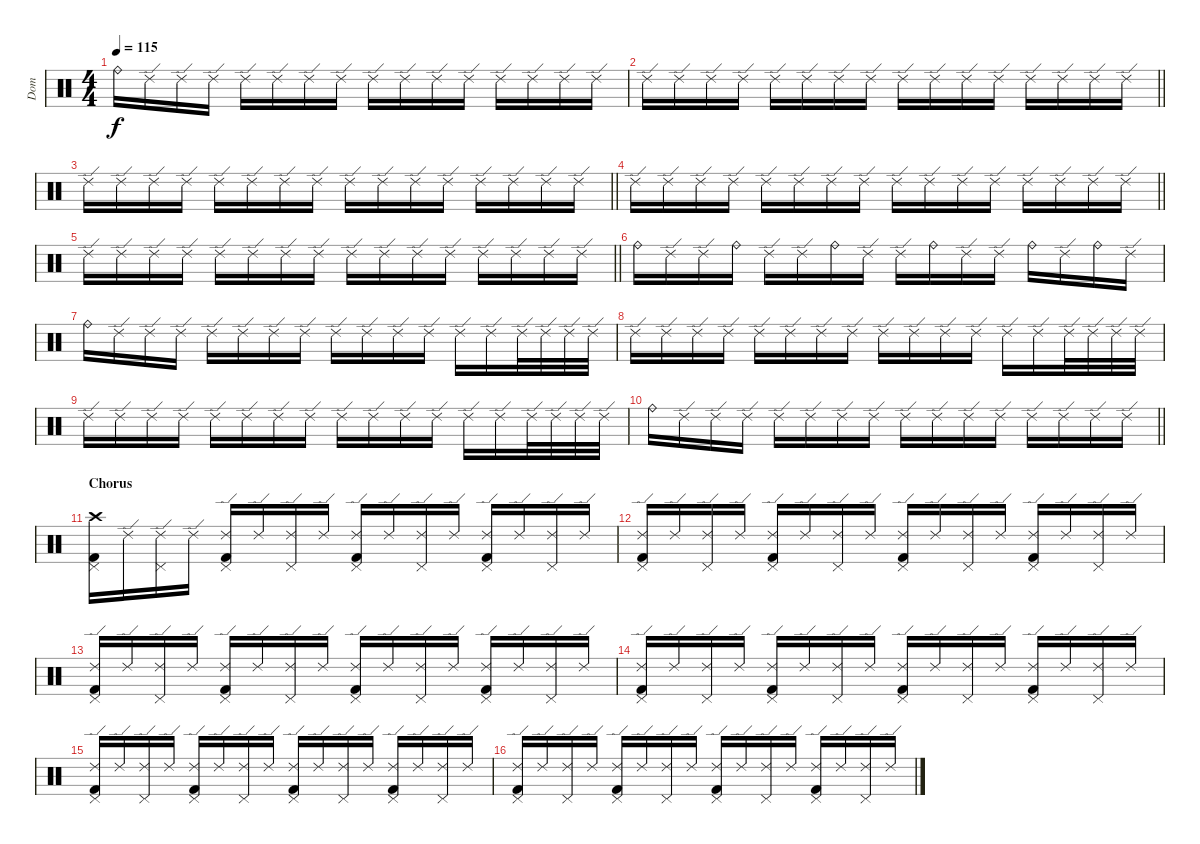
\track ("Dom" "Dom") {instrument percussion}
\staff {score}
\articulation defaults
\ts (4 4)
\tempo 115
\clef neutral
\ks c "Ride (bell)".16{dy f} "Ride (edge) 2".16 "Ride (edge) 2".16 "Ride (edge) 2".16 "Ride (edge) 2".16 "Ride (edge) 2".16 "Ride (edge) 2".16 "Ride (edge) 2".16 "Ride (edge) 2".16 "Ride (edge) 2".16 "Ride (edge) 2".16 "Ride (edge) 2".16 "Ride (edge) 2".16 "Ride (edge) 2".16 "Ride (edge) 2".16 "Ride (edge) 2".16
|
\barLineRight lightlight "Ride (edge) 2".16 "Ride (edge) 2".16 "Ride (edge) 2".16 "Ride (edge) 2".16 "Ride (edge) 2".16 "Ride (edge) 2".16 "Ride (edge) 2".16 "Ride (edge) 2".16 "Ride (edge) 2".16 "Ride (edge) 2".16 "Ride (edge) 2".16 "Ride (edge) 2".16 "Ride (edge) 2".16 "Ride (edge) 2".16 "Ride (edge) 2".16 "Ride (edge) 2".16
|
\barLineRight lightlight "Ride (edge) 2".16 "Ride (edge) 2".16 "Ride (edge) 2".16 "Ride (edge) 2".16 "Ride (edge) 2".16 "Ride (edge) 2".16 "Ride (edge) 2".16 "Ride (edge) 2".16 "Ride (edge) 2".16 "Ride (edge) 2".16 "Ride (edge) 2".16 "Ride (edge) 2".16 "Ride (edge) 2".16 "Ride (edge) 2".16 "Ride (edge) 2".16 "Ride (edge) 2".16
|
\barLineRight lightlight "Ride (edge) 2".16 "Ride (edge) 2".16 "Ride (edge) 2".16 "Ride (edge) 2".16 "Ride (edge) 2".16 "Ride (edge) 2".16 "Ride (edge) 2".16 "Ride (edge) 2".16 "Ride (edge) 2".16 "Ride (edge) 2".16 "Ride (edge) 2".16 "Ride (edge) 2".16 "Ride (edge) 2".16 "Ride (edge) 2".16 "Ride (edge) 2".16 "Ride (edge) 2".16
|
\barLineRight lightlight "Ride (edge) 2".16 "Ride (edge) 2".16 "Ride (edge) 2".16 "Ride (edge) 2".16 "Ride (edge) 2".16 "Ride (edge) 2".16 "Ride (edge) 2".16 "Ride (edge) 2".16 "Ride (edge) 2".16 "Ride (edge) 2".16 "Ride (edge) 2".16 "Ride (edge) 2".16 "Ride (edge) 2".16 "Ride (edge) 2".16 "Ride (edge) 2".16 "Ride (edge) 2".16
|
"Ride (bell)".16 "Ride (edge) 2".16 "Ride (edge) 2".16 "Ride (bell)".16 "Ride (edge) 2".16 "Ride (edge) 2".16 "Ride (bell)".16 "Ride (edge) 2".16 "Ride (edge) 2".16 "Ride (bell)".16 "Ride (edge) 2".16 "Ride (edge) 2".16 "Ride (bell)".16 "Ride (edge) 2".16 "Ride (bell)".16 "Ride (edge) 2".16 |
"Ride (bell)".16 "Ride (edge) 2".16 "Ride (edge) 2".16 "Ride (edge) 2".16 "Ride (edge) 2".16 "Ride (edge) 2".16 "Ride (edge) 2".16 "Ride (edge) 2".16 "Ride (edge) 2".16 "Ride (edge) 2".16 "Ride (edge) 2".16 "Ride (edge) 2".16 "Ride (edge) 2".16 "Ride (edge) 2".16 "Ride (edge) 2".32 "Ride (edge) 2".32 "Ride (edge) 2".32 "Ride (edge) 2".32 |
"Ride (edge) 2".16 "Ride (edge) 2".16 "Ride (edge) 2".16 "Ride (edge) 2".16 "Ride (edge) 2".16 "Ride (edge) 2".16 "Ride (edge) 2".16 "Ride (edge) 2".16 "Ride (edge) 2".16 "Ride (edge) 2".16 "Ride (edge) 2".16 "Ride (edge) 2".16 "Ride (edge) 2".16 "Ride (edge) 2".16 "Ride (edge) 2".32 "Ride (edge) 2".32 "Ride (edge) 2".32 "Ride (edge) 2".32 |
"Ride (edge) 2".16 "Ride (edge) 2".16 "Ride (edge) 2".16 "Ride (edge) 2".16 "Ride (edge) 2".16 "Ride (edge) 2".16 "Ride (edge) 2".16 "Ride (edge) 2".16 "Ride (edge) 2".16 "Ride (edge) 2".16 "Ride (edge) 2".16 "Ride (edge) 2".16 "Ride (edge) 2".16 "Ride (edge) 2".16 "Ride (edge) 2".32 "Ride (edge) 2".32 "Ride (edge) 2".32 "Ride (edge) 2".32 |
\barLineRight lightlight "Ride (bell)".16 "Ride (edge) 2".16 "Ride (edge) 2".16 "Ride (edge) 2".16 "Ride (edge) 2".16 "Ride (edge) 2".16 "Ride (edge) 2".16 "Ride (edge) 2".16 "Ride (edge) 2".16 "Ride (edge) 2".16 "Ride (edge) 2".16 "Ride (edge) 2".16 "Ride (edge) 2".16 "Ride (edge) 2".16 "Ride (edge) 2".16 "Ride (edge) 2".16
|
\section ("" "Chorus")
("Crash high (hit)" "Pedal Hi-Hat (hit)" "Kick (hit) 2").16 "Ride (edge) 2".16 ("Ride (edge) 2" "Pedal Hi-Hat (hit)").16 "Ride (edge) 2".16 ("Ride (edge) 2" "Pedal Hi-Hat (hit)" "Kick (hit) 2").16 "Ride (edge) 2".16 ("Ride (edge) 2" "Pedal Hi-Hat (hit)").16 "Ride (edge) 2".16 ("Ride (edge) 2" "Pedal Hi-Hat (hit)" "Kick (hit) 2").16 "Ride (edge) 2".16 ("Ride (edge) 2" "Pedal Hi-Hat (hit)").16 "Ride (edge) 2".16 ("Ride (edge) 2" "Pedal Hi-Hat (hit)" "Kick (hit) 2").16 "Ride (edge) 2".16 ("Ride (edge) 2" "Pedal Hi-Hat (hit)").16 "Ride (edge) 2".16 |
("Ride (edge) 2" "Pedal Hi-Hat (hit)" "Kick (hit) 2").16 "Ride (edge) 2".16 ("Ride (edge) 2" "Pedal Hi-Hat (hit)").16 "Ride (edge) 2".16 ("Ride (edge) 2" "Pedal Hi-Hat (hit)" "Kick (hit) 2").16 "Ride (edge) 2".16 ("Ride (edge) 2" "Pedal Hi-Hat (hit)").16 "Ride (edge) 2".16 ("Ride (edge) 2" "Pedal Hi-Hat (hit)" "Kick (hit) 2").16 "Ride (edge) 2".16 ("Ride (edge) 2" "Pedal Hi-Hat (hit)").16 "Ride (edge) 2".16 ("Ride (edge) 2" "Pedal Hi-Hat (hit)" "Kick (hit) 2").16 "Ride (edge) 2".16 ("Ride (edge) 2" "Pedal Hi-Hat (hit)").16 "Ride (edge) 2".16 |
("Ride (edge) 2" "Pedal Hi-Hat (hit)" "Kick (hit) 2").16 "Ride (edge) 2".16 ("Ride (edge) 2" "Pedal Hi-Hat (hit)").16 "Ride (edge) 2".16 ("Ride (edge) 2" "Pedal Hi-Hat (hit)" "Kick (hit) 2").16 "Ride (edge) 2".16 ("Ride (edge) 2" "Pedal Hi-Hat (hit)").16 "Ride (edge) 2".16 ("Ride (edge) 2" "Pedal Hi-Hat (hit)" "Kick (hit) 2").16 "Ride (edge) 2".16 ("Ride (edge) 2" "Pedal Hi-Hat (hit)").16 "Ride (edge) 2".16 ("Ride (edge) 2" "Pedal Hi-Hat (hit)" "Kick (hit) 2").16 "Ride (edge) 2".16 ("Ride (edge) 2" "Pedal Hi-Hat (hit)").16 "Ride (edge) 2".16 |
("Ride (edge) 2" "Pedal Hi-Hat (hit)" "Kick (hit) 2").16 "Ride (edge) 2".16 ("Ride (edge) 2" "Pedal Hi-Hat (hit)").16 "Ride (edge) 2".16 ("Ride (edge) 2" "Pedal Hi-Hat (hit)" "Kick (hit) 2").16 "Ride (edge) 2".16 ("Ride (edge) 2" "Pedal Hi-Hat (hit)").16 "Ride (edge) 2".16 ("Ride (edge) 2" "Pedal Hi-Hat (hit)" "Kick (hit) 2").16 "Ride (edge) 2".16 ("Ride (edge) 2" "Pedal Hi-Hat (hit)").16 "Ride (edge) 2".16 ("Ride (edge) 2" "Pedal Hi-Hat (hit)" "Kick (hit) 2").16 "Ride (edge) 2".16 ("Ride (edge) 2" "Pedal Hi-Hat (hit)").16 "Ride (edge) 2".16 |
("Ride (edge) 2" "Pedal Hi-Hat (hit)" "Kick (hit) 2").16 "Ride (edge) 2".16 ("Ride (edge) 2" "Pedal Hi-Hat (hit)").16 "Ride (edge) 2".16 ("Ride (edge) 2" "Pedal Hi-Hat (hit)" "Kick (hit) 2").16 "Ride (edge) 2".16 ("Ride (edge) 2" "Pedal Hi-Hat (hit)").16 "Ride (edge) 2".16 ("Ride (edge) 2" "Pedal Hi-Hat (hit)" "Kick (hit) 2").16 "Ride (edge) 2".16 ("Ride (edge) 2" "Pedal Hi-Hat (hit)").16 "Ride (edge) 2".16 ("Ride (edge) 2" "Pedal Hi-Hat (hit)" "Kick (hit) 2").16 "Ride (edge) 2".16 ("Ride (edge) 2" "Pedal Hi-Hat (hit)").16 "Ride (edge) 2".16 |
("Ride (edge) 2" "Pedal Hi-Hat (hit)" "Kick (hit) 2").16 "Ride (edge) 2".16 ("Ride (edge) 2" "Pedal Hi-Hat (hit)").16 "Ride (edge) 2".16 ("Ride (edge) 2" "Pedal Hi-Hat (hit)" "Kick (hit) 2").16 "Ride (edge) 2".16 ("Ride (edge) 2" "Pedal Hi-Hat (hit)").16 "Ride (edge) 2".16 ("Ride (edge) 2" "Pedal Hi-Hat (hit)" "Kick (hit) 2").16 "Ride (edge) 2".16 ("Ride (edge) 2" "Pedal Hi-Hat (hit)").16 "Ride (edge) 2".16 ("Ride (edge) 2" "Pedal Hi-Hat (hit)" "Kick (hit) 2").16 "Ride (edge) 2".16 ("Ride (edge) 2" "Pedal Hi-Hat (hit)").16 "Ride (edge) 2".16
